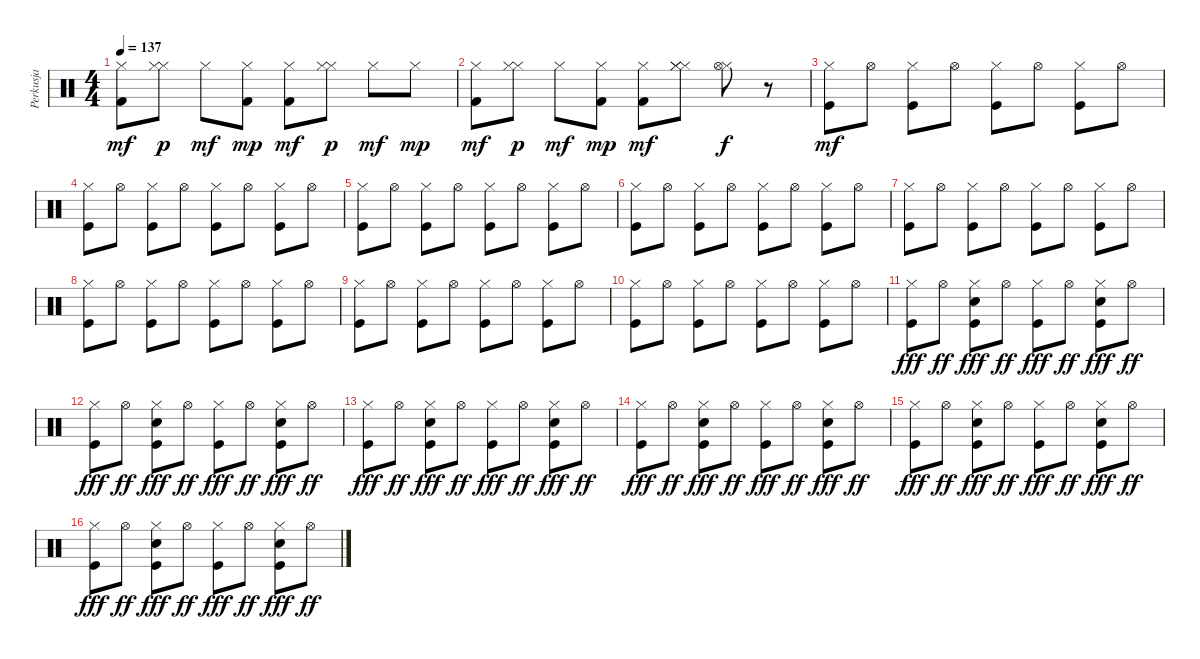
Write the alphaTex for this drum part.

\track ("Perkusja" "Perkusja") {instrument percussion}
\staff {score}
\articulation defaults
\ts (4 4)
\tempo 137
\clef neutral
\ks c
("Hi-Hat (closed)" "Kick (hit) 2").8{dy mf} ("Hi-Hat (closed)" "Hi-Hat (closed)").8{dy p} "Hi-Hat (closed)".8{dy mf} ("Hi-Hat (closed)" "Kick (hit) 2").8{dy mp} ("Hi-Hat (closed)" "Kick (hit) 2").8{dy mf} ("Hi-Hat (closed)" "Hi-Hat (closed)").8{dy p} "Hi-Hat (closed)".8{dy mf} "Hi-Hat (closed)".8{dy mp} |
("Hi-Hat (closed)" "Kick (hit) 2").8{dy mf} ("Hi-Hat (closed)" "Hi-Hat (closed)").8{dy p} "Hi-Hat (closed)".8{dy mf} ("Hi-Hat (closed)" "Kick (hit) 2").8{dy mp} ("Hi-Hat (closed)" "Kick (hit) 2").8{dy mf} ("Hi-Hat (closed)" "Hi-Hat (closed)" "Hi-Hat (closed)").8 ("Hi-Hat (closed)" "Hi-Hat (open)").8{dy f} r.8 |
("Kick (hit)" "Hi-Hat (closed)").8{dy mf} "Hi-Hat (open)".8 ("Kick (hit)" "Hi-Hat (closed)").8 "Hi-Hat (open)".8 ("Kick (hit)" "Hi-Hat (closed)").8 "Hi-Hat (open)".8 ("Kick (hit)" "Hi-Hat (closed)").8 "Hi-Hat (open)".8 |
("Kick (hit)" "Hi-Hat (closed)").8 "Hi-Hat (open)".8 ("Kick (hit)" "Hi-Hat (closed)").8 "Hi-Hat (open)".8 ("Kick (hit)" "Hi-Hat (closed)").8 "Hi-Hat (open)".8 ("Kick (hit)" "Hi-Hat (closed)").8 "Hi-Hat (open)".8 |
("Kick (hit)" "Hi-Hat (closed)").8 "Hi-Hat (open)".8 ("Kick (hit)" "Hi-Hat (closed)").8 "Hi-Hat (open)".8 ("Kick (hit)" "Hi-Hat (closed)").8 "Hi-Hat (open)".8 ("Kick (hit)" "Hi-Hat (closed)").8 "Hi-Hat (open)".8 |
("Kick (hit)" "Hi-Hat (closed)").8 "Hi-Hat (open)".8 ("Kick (hit)" "Hi-Hat (closed)").8 "Hi-Hat (open)".8 ("Kick (hit)" "Hi-Hat (closed)").8 "Hi-Hat (open)".8 ("Kick (hit)" "Hi-Hat (closed)").8 "Hi-Hat (open)".8 |
("Kick (hit)" "Hi-Hat (closed)").8 "Hi-Hat (open)".8 ("Kick (hit)" "Hi-Hat (closed)").8 "Hi-Hat (open)".8 ("Kick (hit)" "Hi-Hat (closed)").8 "Hi-Hat (open)".8 ("Kick (hit)" "Hi-Hat (closed)").8 "Hi-Hat (open)".8 |
("Kick (hit)" "Hi-Hat (closed)").8 "Hi-Hat (open)".8 ("Kick (hit)" "Hi-Hat (closed)").8 "Hi-Hat (open)".8 ("Kick (hit)" "Hi-Hat (closed)").8 "Hi-Hat (open)".8 ("Kick (hit)" "Hi-Hat (closed)").8 "Hi-Hat (open)".8 |
("Kick (hit)" "Hi-Hat (closed)").8 "Hi-Hat (open)".8 ("Kick (hit)" "Hi-Hat (closed)").8 "Hi-Hat (open)".8 ("Kick (hit)" "Hi-Hat (closed)").8 "Hi-Hat (open)".8 ("Kick (hit)" "Hi-Hat (closed)").8 "Hi-Hat (open)".8 |
("Kick (hit)" "Hi-Hat (closed)").8 "Hi-Hat (open)".8 ("Kick (hit)" "Hi-Hat (closed)").8 "Hi-Hat (open)".8 ("Kick (hit)" "Hi-Hat (closed)").8 "Hi-Hat (open)".8 ("Kick (hit)" "Hi-Hat (closed)").8 "Hi-Hat (open)".8 |
("Kick (hit)" "Hi-Hat (closed)").8{dy fff} "Hi-Hat (open)".8{dy ff} ("Electric Snare (hit)" "Kick (hit)" "Hi-Hat (closed)").8{dy fff} "Hi-Hat (open)".8{dy ff} ("Kick (hit)" "Hi-Hat (closed)").8{dy fff} "Hi-Hat (open)".8{dy ff} ("Electric Snare (hit)" "Kick (hit)" "Hi-Hat (closed)").8{dy fff} "Hi-Hat (open)".8{dy ff} |
("Kick (hit)" "Hi-Hat (closed)").8{dy fff} "Hi-Hat (open)".8{dy ff} ("Electric Snare (hit)" "Kick (hit)" "Hi-Hat (closed)").8{dy fff} "Hi-Hat (open)".8{dy ff} ("Kick (hit)" "Hi-Hat (closed)").8{dy fff} "Hi-Hat (open)".8{dy ff} ("Electric Snare (hit)" "Kick (hit)" "Hi-Hat (closed)").8{dy fff} "Hi-Hat (open)".8{dy ff} |
("Kick (hit)" "Hi-Hat (closed)").8{dy fff} "Hi-Hat (open)".8{dy ff} ("Electric Snare (hit)" "Kick (hit)" "Hi-Hat (closed)").8{dy fff} "Hi-Hat (open)".8{dy ff} ("Kick (hit)" "Hi-Hat (closed)").8{dy fff} "Hi-Hat (open)".8{dy ff} ("Electric Snare (hit)" "Kick (hit)" "Hi-Hat (closed)").8{dy fff} "Hi-Hat (open)".8{dy ff} |
("Kick (hit)" "Hi-Hat (closed)").8{dy fff} "Hi-Hat (open)".8{dy ff} ("Electric Snare (hit)" "Kick (hit)" "Hi-Hat (closed)").8{dy fff} "Hi-Hat (open)".8{dy ff} ("Kick (hit)" "Hi-Hat (closed)").8{dy fff} "Hi-Hat (open)".8{dy ff} ("Electric Snare (hit)" "Kick (hit)" "Hi-Hat (closed)").8{dy fff} "Hi-Hat (open)".8{dy ff} |
("Kick (hit)" "Hi-Hat (closed)").8{dy fff} "Hi-Hat (open)".8{dy ff} ("Electric Snare (hit)" "Kick (hit)" "Hi-Hat (closed)").8{dy fff} "Hi-Hat (open)".8{dy ff} ("Kick (hit)" "Hi-Hat (closed)").8{dy fff} "Hi-Hat (open)".8{dy ff} ("Electric Snare (hit)" "Kick (hit)" "Hi-Hat (closed)").8{dy fff} "Hi-Hat (open)".8{dy ff} |
("Kick (hit)" "Hi-Hat (closed)").8{dy fff} "Hi-Hat (open)".8{dy ff} ("Electric Snare (hit)" "Kick (hit)" "Hi-Hat (closed)").8{dy fff} "Hi-Hat (open)".8{dy ff} ("Kick (hit)" "Hi-Hat (closed)").8{dy fff} "Hi-Hat (open)".8{dy ff} ("Electric Snare (hit)" "Kick (hit)" "Hi-Hat (closed)").8{dy fff} "Hi-Hat (open)".8{dy ff}
